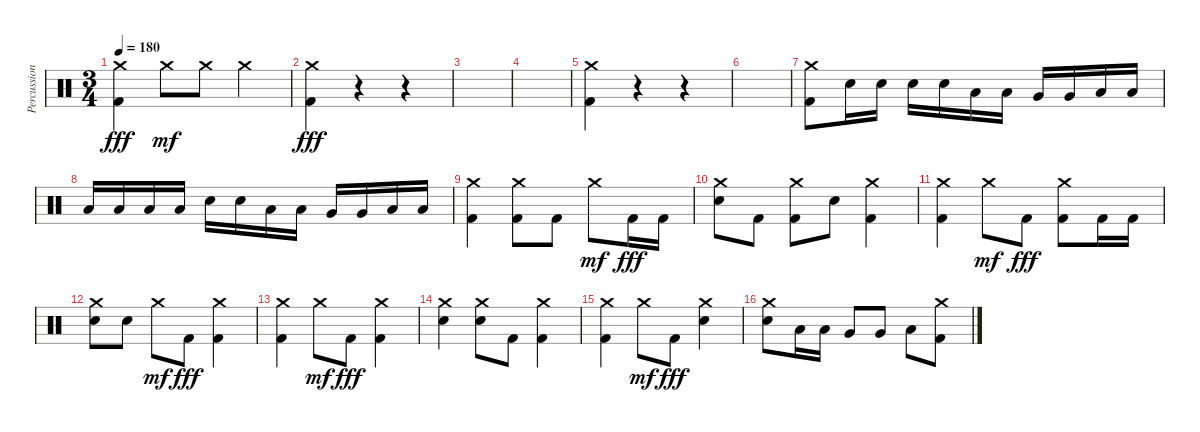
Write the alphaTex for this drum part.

\track ("Percussion" "Percussion") {instrument percussion}
\staff {score}
\articulation defaults
\ts (3 4)
\tempo 180
\clef neutral
\ks c
("Crash medium (hit)" "Kick (hit) 2").4{dy fff} "Crash medium (hit)".8{dy mf} "Crash medium (hit)".8 "Crash medium (hit)".4 |
("Crash medium (hit)" "Kick (hit) 2").4{dy fff} r.4 r.4 |
|
|
("Crash medium (hit)" "Kick (hit) 2").4 r.4 r.4 |
|
("Crash medium (hit)" "Kick (hit) 2").8 "Electric Snare (hit)".16 "Electric Snare (hit)".16 "Electric Snare (hit)".16 "Electric Snare (hit)".16 "Low Tom (hit)".16 "Low Tom (hit)".16 "Very Low Tom (hit)".16 "Very Low Tom (hit)".16 "Low Floor Tom (hit)".16 "Low Floor Tom (hit)".16 |
"Low Floor Tom (hit)".16 "Low Floor Tom (hit)".16 "Low Floor Tom (hit)".16 "Low Floor Tom (hit)".16 "Electric Snare (hit)".16 "Electric Snare (hit)".16 "Low Tom (hit)".16 "Low Tom (hit)".16 "Very Low Tom (hit)".16 "Very Low Tom (hit)".16 "Low Floor Tom (hit)".16 "Low Floor Tom (hit)".16 |
("Crash medium (hit)" "Kick (hit) 2").4 ("Crash medium (hit)" "Kick (hit) 2").8 "Kick (hit) 2".8 "Crash medium (hit)".8{dy mf} "Kick (hit) 2".16{dy fff} "Kick (hit) 2".16 |
("Crash medium (hit)" "Electric Snare (hit)").8 "Kick (hit) 2".8 ("Crash medium (hit)" "Kick (hit) 2").8 "Electric Snare (hit)".8 ("Crash medium (hit)" "Kick (hit) 2").4 |
("Crash medium (hit)" "Kick (hit) 2").4 "Crash medium (hit)".8{dy mf} "Kick (hit) 2".8{dy fff} ("Crash medium (hit)" "Kick (hit) 2").8 "Kick (hit) 2".16 "Kick (hit) 2".16 |
("Crash medium (hit)" "Electric Snare (hit)").8 "Electric Snare (hit)".8 "Crash medium (hit)".8{dy mf} "Kick (hit) 2".8{dy fff} ("Crash medium (hit)" "Kick (hit) 2").4 |
("Crash medium (hit)" "Kick (hit) 2").4 "Crash medium (hit)".8{dy mf} "Kick (hit) 2".8{dy fff} ("Crash medium (hit)" "Kick (hit) 2").4 |
("Crash medium (hit)" "Electric Snare (hit)").4 ("Crash medium (hit)" "Electric Snare (hit)").8 "Kick (hit) 2".8 ("Crash medium (hit)" "Kick (hit) 2").4 |
("Crash medium (hit)" "Kick (hit) 2").4 "Crash medium (hit)".8{dy mf} "Kick (hit) 2".8{dy fff} ("Crash medium (hit)" "Electric Snare (hit)").4 |
("Crash medium (hit)" "Electric Snare (hit)").8 "Low Tom (hit)".16 "Low Tom (hit)".16 "Very Low Tom (hit)".8 "Very Low Tom (hit)".8 "Low Floor Tom (hit)".8 ("Crash medium (hit)" "Kick (hit) 2").8
